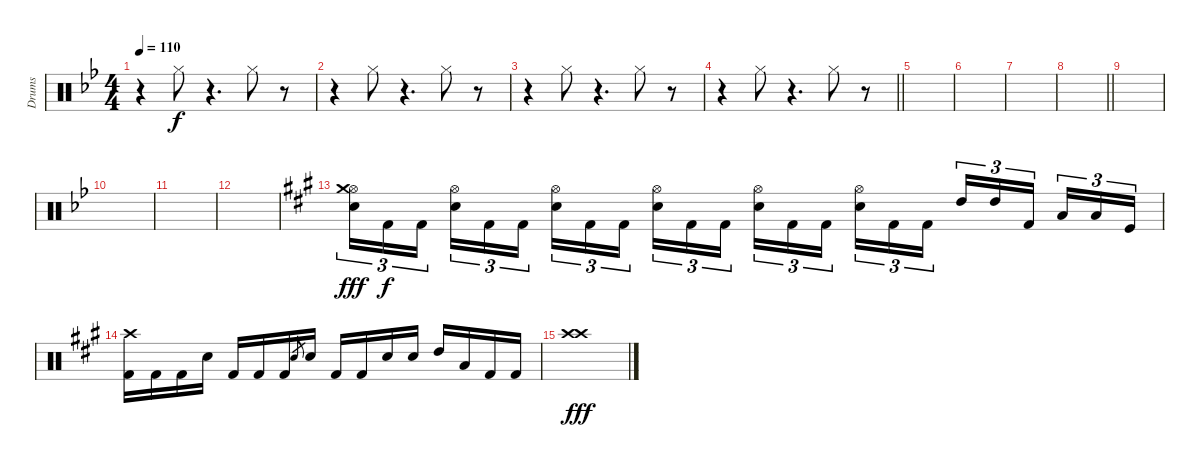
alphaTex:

\track ("Drums" "Drums") {instrument percussion}
\staff {score}
\articulation defaults
\ts (4 4)
\tempo 110
\clef neutral
\ks bb
r.4{dy f} "Hi-Hat (closed)".8 r.4{d} "Hi-Hat (closed)".8 r.8 |
r.4 "Hi-Hat (closed)".8 r.4{d} "Hi-Hat (closed)".8 r.8 |
r.4 "Hi-Hat (closed)".8 r.4{d} "Hi-Hat (closed)".8 r.8 |
\barLineRight lightlight
r.4 "Hi-Hat (closed)".8 r.4{d} "Hi-Hat (closed)".8 r.8 |
|
|
|
\barLineRight lightlight
|
|
|
|
|
\ks a
("Electric Snare (hit)" "Hi-Hat (open)" "Crash medium (hit)").16{tu (3 2) dy fff} "Kick (hit) 2".16{tu (3 2) dy f} "Kick (hit) 2".16{tu (3 2) beam splitsecondary} ("Electric Snare (hit)" "Hi-Hat (open)").16{tu (3 2)} "Kick (hit) 2".16{tu (3 2)} "Kick (hit) 2".16{tu (3 2)} ("Electric Snare (hit)" "Hi-Hat (open)").16{tu (3 2)} "Kick (hit) 2".16{tu (3 2)} "Kick (hit) 2".16{tu (3 2) beam splitsecondary} ("Electric Snare (hit)" "Hi-Hat (open)").16{tu (3 2)} "Kick (hit) 2".16{tu (3 2)} "Kick (hit) 2".16{tu (3 2)} ("Electric Snare (hit)" "Hi-Hat (open)").16{tu (3 2)} "Kick (hit) 2".16{tu (3 2)} "Kick (hit) 2".16{tu (3 2) beam splitsecondary} ("Electric Snare (hit)" "Hi-Hat (open)").16{tu (3 2)} "Kick (hit) 2".16{tu (3 2)} "Kick (hit) 2".16{tu (3 2)} "High Tom (hit)".16{tu (3 2)} "High Tom (hit)".16{tu (3 2)} "Kick (hit) 2".16{tu (3 2) beam splitsecondary} "Low Tom (hit)".16{tu (3 2)} "Low Tom (hit)".16{tu (3 2)} "Kick (hit)".16{tu (3 2)} |
("Kick (hit) 2" "Crash high (hit)").16 "Kick (hit) 2".16 "Kick (hit) 2".16 "Electric Snare (hit)".16 "Kick (hit) 2".16 "Kick (hit) 2".16 "Kick (hit) 2".16 "Snare (hit) 2".8{gr} "Electric Snare (hit)".16 "Kick (hit) 2".16 "Kick (hit) 2".16 "Electric Snare (hit)".16 "Electric Snare (hit)".16 "High Tom (hit)".16 "Low Tom (hit)".16 "Kick (hit) 2".16 "Kick (hit) 2".16 |
("Crash high (hit)" "Crash high (hit)").1{dy fff}
